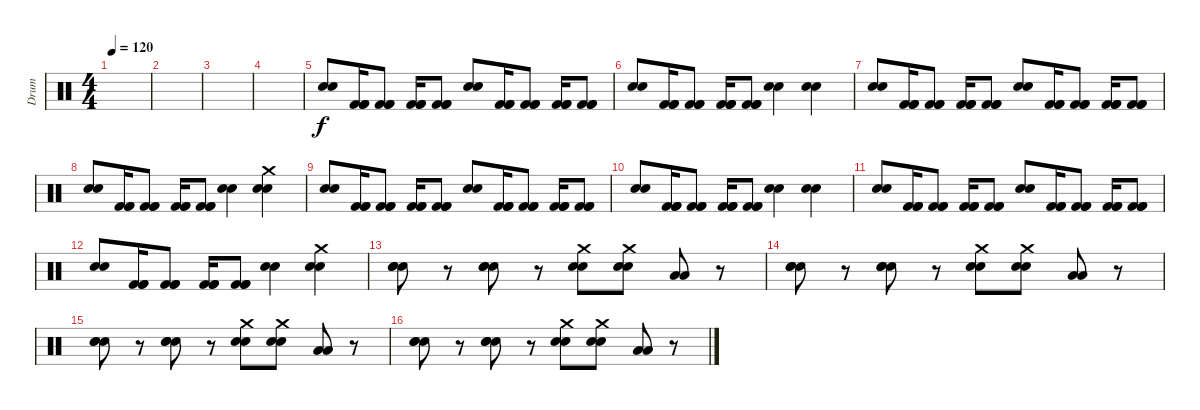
\track ("Drum" "Drum") {instrument percussion}
\staff {score}
\articulation defaults
\ts (4 4)
\tempo 120
\clef neutral
\ks c
|
|
|
|
("Snare (hit) 2" "Snare (hit) 2").8 ("Kick (hit) 2" "Kick (hit) 2" "Kick (hit) 2").16 ("Kick (hit) 2" "Kick (hit) 2" "Kick (hit) 2").8 ("Kick (hit) 2" "Kick (hit) 2" "Kick (hit) 2").16 ("Kick (hit) 2" "Kick (hit) 2" "Kick (hit) 2").8 ("Snare (hit) 2" "Snare (hit) 2").8 ("Kick (hit) 2" "Kick (hit) 2" "Kick (hit) 2").16 ("Kick (hit) 2" "Kick (hit) 2" "Kick (hit) 2").8 ("Kick (hit) 2" "Kick (hit) 2" "Kick (hit) 2").16 ("Kick (hit) 2" "Kick (hit) 2" "Kick (hit) 2").8 |
("Snare (hit) 2" "Snare (hit) 2").8 ("Kick (hit) 2" "Kick (hit) 2" "Kick (hit) 2").16 ("Kick (hit) 2" "Kick (hit) 2" "Kick (hit) 2").8 ("Kick (hit) 2" "Kick (hit) 2" "Kick (hit) 2").16 ("Kick (hit) 2" "Kick (hit) 2" "Kick (hit) 2").8 ("Snare (hit) 2" "Snare (hit) 2").4 ("Snare (hit) 2" "Snare (hit) 2").4 |
("Snare (hit) 2" "Snare (hit) 2").8 ("Kick (hit) 2" "Kick (hit) 2" "Kick (hit) 2").16 ("Kick (hit) 2" "Kick (hit) 2" "Kick (hit) 2").8 ("Kick (hit) 2" "Kick (hit) 2" "Kick (hit) 2").16 ("Kick (hit) 2" "Kick (hit) 2" "Kick (hit) 2").8 ("Snare (hit) 2" "Snare (hit) 2").8 ("Kick (hit) 2" "Kick (hit) 2" "Kick (hit) 2").16 ("Kick (hit) 2" "Kick (hit) 2" "Kick (hit) 2").8 ("Kick (hit) 2" "Kick (hit) 2" "Kick (hit) 2").16 ("Kick (hit) 2" "Kick (hit) 2" "Kick (hit) 2").8 |
("Snare (hit) 2" "Snare (hit) 2").8 ("Kick (hit) 2" "Kick (hit) 2" "Kick (hit) 2").16 ("Kick (hit) 2" "Kick (hit) 2" "Kick (hit) 2").8 ("Kick (hit) 2" "Kick (hit) 2" "Kick (hit) 2").16 ("Kick (hit) 2" "Kick (hit) 2" "Kick (hit) 2").8 ("Snare (hit) 2" "Snare (hit) 2").4 ("Snare (hit) 2" "Snare (hit) 2" "Crash medium (hit)").4 |
("Snare (hit) 2" "Snare (hit) 2").8 ("Kick (hit) 2" "Kick (hit) 2" "Kick (hit) 2").16 ("Kick (hit) 2" "Kick (hit) 2" "Kick (hit) 2").8 ("Kick (hit) 2" "Kick (hit) 2" "Kick (hit) 2").16 ("Kick (hit) 2" "Kick (hit) 2" "Kick (hit) 2").8 ("Snare (hit) 2" "Snare (hit) 2").8 ("Kick (hit) 2" "Kick (hit) 2" "Kick (hit) 2").16 ("Kick (hit) 2" "Kick (hit) 2" "Kick (hit) 2").8 ("Kick (hit) 2" "Kick (hit) 2" "Kick (hit) 2").16 ("Kick (hit) 2" "Kick (hit) 2" "Kick (hit) 2").8 |
("Snare (hit) 2" "Snare (hit) 2").8 ("Kick (hit) 2" "Kick (hit) 2" "Kick (hit) 2").16 ("Kick (hit) 2" "Kick (hit) 2" "Kick (hit) 2").8 ("Kick (hit) 2" "Kick (hit) 2" "Kick (hit) 2").16 ("Kick (hit) 2" "Kick (hit) 2" "Kick (hit) 2").8 ("Snare (hit) 2" "Snare (hit) 2").4 ("Snare (hit) 2" "Snare (hit) 2").4 |
("Snare (hit) 2" "Snare (hit) 2").8 ("Kick (hit) 2" "Kick (hit) 2" "Kick (hit) 2").16 ("Kick (hit) 2" "Kick (hit) 2" "Kick (hit) 2").8 ("Kick (hit) 2" "Kick (hit) 2" "Kick (hit) 2").16 ("Kick (hit) 2" "Kick (hit) 2" "Kick (hit) 2").8 ("Snare (hit) 2" "Snare (hit) 2").8 ("Kick (hit) 2" "Kick (hit) 2" "Kick (hit) 2").16 ("Kick (hit) 2" "Kick (hit) 2" "Kick (hit) 2").8 ("Kick (hit) 2" "Kick (hit) 2" "Kick (hit) 2").16 ("Kick (hit) 2" "Kick (hit) 2" "Kick (hit) 2").8 |
("Snare (hit) 2" "Snare (hit) 2").8 ("Kick (hit) 2" "Kick (hit) 2" "Kick (hit) 2").16 ("Kick (hit) 2" "Kick (hit) 2" "Kick (hit) 2").8 ("Kick (hit) 2" "Kick (hit) 2" "Kick (hit) 2").16 ("Kick (hit) 2" "Kick (hit) 2" "Kick (hit) 2").8 ("Snare (hit) 2" "Snare (hit) 2").4 ("Snare (hit) 2" "Snare (hit) 2" "Crash medium (hit)").4 |
("Snare (hit) 2" "Snare (hit) 2" "Snare (hit) 2").8 r.8 ("Snare (hit) 2" "Snare (hit) 2" "Snare (hit) 2").8 r.8 ("Crash medium (hit)" "Snare (hit) 2" "Snare (hit) 2").8 ("Crash medium (hit)" "Snare (hit) 2" "Snare (hit) 2").8 ("Low Tom (hit)" "Low Tom (hit)").8 r.8 |
("Snare (hit) 2" "Snare (hit) 2" "Snare (hit) 2").8 r.8 ("Snare (hit) 2" "Snare (hit) 2" "Snare (hit) 2").8 r.8 ("Crash medium (hit)" "Snare (hit) 2" "Snare (hit) 2").8 ("Crash medium (hit)" "Snare (hit) 2" "Snare (hit) 2").8 ("Low Tom (hit)" "Low Tom (hit)").8 r.8 |
("Snare (hit) 2" "Snare (hit) 2" "Snare (hit) 2").8 r.8 ("Snare (hit) 2" "Snare (hit) 2" "Snare (hit) 2").8 r.8 ("Crash medium (hit)" "Snare (hit) 2" "Snare (hit) 2").8 ("Crash medium (hit)" "Snare (hit) 2" "Snare (hit) 2").8 ("Low Tom (hit)" "Low Tom (hit)").8 r.8 |
("Snare (hit) 2" "Snare (hit) 2" "Snare (hit) 2").8 r.8 ("Snare (hit) 2" "Snare (hit) 2" "Snare (hit) 2").8 r.8 ("Crash medium (hit)" "Snare (hit) 2" "Snare (hit) 2").8 ("Crash medium (hit)" "Snare (hit) 2" "Snare (hit) 2").8 ("Low Tom (hit)" "Low Tom (hit)").8 r.8
